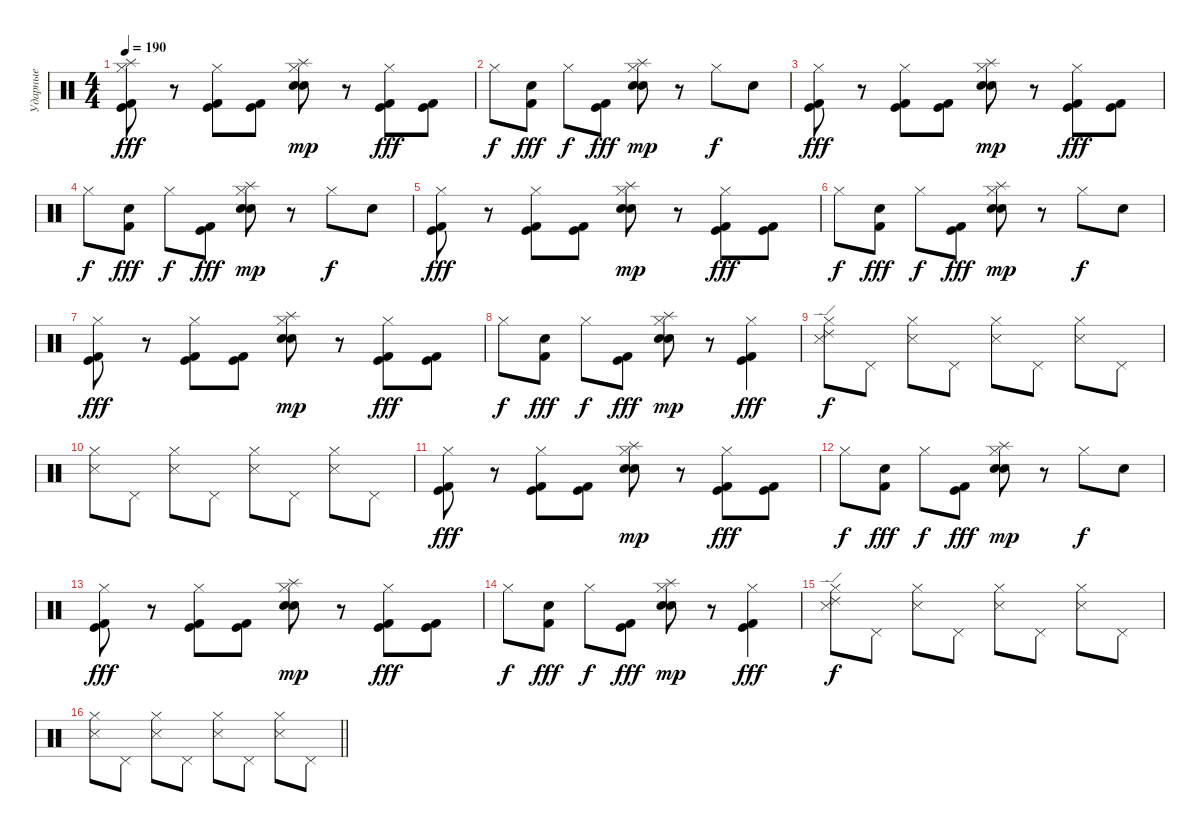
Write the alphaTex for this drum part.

\track ("Ударные" "Ударные") {instrument percussion}
\staff {score}
\articulation defaults
\ts (4 4)
\tempo 190
\clef neutral
\ks c
("Hi-Hat (closed)" "Splash (hit)" "Kick (hit)" "Kick (hit) 2").8{dy fff} r.8 ("Hi-Hat (closed)" "Kick (hit)" "Kick (hit) 2").8 ("Kick (hit)" "Kick (hit) 2").8 ("Hi-Hat (closed)" "Splash (hit)" "Electric Snare (hit)" "Snare (hit) 2").8{dy mp} r.8 ("Hi-Hat (closed)" "Kick (hit)" "Kick (hit) 2").8{dy fff} ("Kick (hit)" "Kick (hit) 2").8 |
"Hi-Hat (closed)".8{dy f} ("Electric Snare (hit)" "Kick (hit) 2").8{dy fff} "Hi-Hat (closed)".8{dy f} ("Kick (hit)" "Kick (hit) 2").8{dy fff} ("Hi-Hat (closed)" "Splash (hit)" "Electric Snare (hit)" "Snare (hit) 2").8{dy mp} r.8 "Hi-Hat (closed)".8{dy f} "Electric Snare (hit)".8 |
("Hi-Hat (closed)" "Kick (hit)" "Kick (hit) 2").8{dy fff} r.8 ("Hi-Hat (closed)" "Kick (hit)" "Kick (hit) 2").8 ("Kick (hit)" "Kick (hit) 2").8 ("Hi-Hat (closed)" "Splash (hit)" "Electric Snare (hit)" "Snare (hit) 2").8{dy mp} r.8 ("Hi-Hat (closed)" "Kick (hit)" "Kick (hit) 2").8{dy fff} ("Kick (hit)" "Kick (hit) 2").8 |
"Hi-Hat (closed)".8{dy f} ("Electric Snare (hit)" "Kick (hit) 2").8{dy fff} "Hi-Hat (closed)".8{dy f} ("Kick (hit)" "Kick (hit) 2").8{dy fff} ("Hi-Hat (closed)" "Splash (hit)" "Electric Snare (hit)" "Snare (hit) 2").8{dy mp} r.8 "Hi-Hat (closed)".8{dy f} "Electric Snare (hit)".8 |
("Hi-Hat (closed)" "Kick (hit)" "Kick (hit) 2").8{dy fff} r.8 ("Hi-Hat (closed)" "Kick (hit)" "Kick (hit) 2").8 ("Kick (hit)" "Kick (hit) 2").8 ("Hi-Hat (closed)" "Splash (hit)" "Electric Snare (hit)" "Snare (hit) 2").8{dy mp} r.8 ("Hi-Hat (closed)" "Kick (hit)" "Kick (hit) 2").8{dy fff} ("Kick (hit)" "Kick (hit) 2").8 |
"Hi-Hat (closed)".8{dy f} ("Electric Snare (hit)" "Kick (hit) 2").8{dy fff} "Hi-Hat (closed)".8{dy f} ("Kick (hit)" "Kick (hit) 2").8{dy fff} ("Hi-Hat (closed)" "Splash (hit)" "Electric Snare (hit)" "Snare (hit) 2").8{dy mp} r.8 "Hi-Hat (closed)".8{dy f} "Electric Snare (hit)".8 |
("Hi-Hat (closed)" "Kick (hit)" "Kick (hit) 2").8{dy fff} r.8 ("Hi-Hat (closed)" "Kick (hit)" "Kick (hit) 2").8 ("Kick (hit)" "Kick (hit) 2").8 ("Hi-Hat (closed)" "Splash (hit)" "Electric Snare (hit)" "Snare (hit) 2").8{dy mp} r.8 ("Hi-Hat (closed)" "Kick (hit)" "Kick (hit) 2").8{dy fff} ("Kick (hit)" "Kick (hit) 2").8 |
"Hi-Hat (closed)".8{dy f} ("Electric Snare (hit)" "Kick (hit) 2").8{dy fff} "Hi-Hat (closed)".8{dy f} ("Kick (hit)" "Kick (hit) 2").8{dy fff} ("Hi-Hat (closed)" "Splash (hit)" "Electric Snare (hit)" "Snare (hit) 2").8{dy mp} r.8 ("Hi-Hat (closed)" "Kick (hit)" "Kick (hit) 2").4{dy fff} |
("Hi-Hat (closed)" "Snare (side stick) 3" "Ride (edge) 2").8{dy f} "Pedal Hi-Hat (hit)".8 ("Hi-Hat (closed)" "Snare (side stick) 3").8 "Pedal Hi-Hat (hit)".8 ("Hi-Hat (closed)" "Snare (side stick) 3").8 "Pedal Hi-Hat (hit)".8 ("Hi-Hat (closed)" "Snare (side stick) 3").8 "Pedal Hi-Hat (hit)".8 |
("Hi-Hat (closed)" "Snare (side stick) 3").8 "Pedal Hi-Hat (hit)".8 ("Hi-Hat (closed)" "Snare (side stick) 3").8 "Pedal Hi-Hat (hit)".8 ("Hi-Hat (closed)" "Snare (side stick) 3").8 "Pedal Hi-Hat (hit)".8 ("Hi-Hat (closed)" "Snare (side stick) 3").8 "Pedal Hi-Hat (hit)".8 |
("Hi-Hat (closed)" "Kick (hit)" "Kick (hit) 2").8{dy fff} r.8 ("Hi-Hat (closed)" "Kick (hit)" "Kick (hit) 2").8 ("Kick (hit)" "Kick (hit) 2").8 ("Hi-Hat (closed)" "Splash (hit)" "Electric Snare (hit)" "Snare (hit) 2").8{dy mp} r.8 ("Hi-Hat (closed)" "Kick (hit)" "Kick (hit) 2").8{dy fff} ("Kick (hit)" "Kick (hit) 2").8 |
"Hi-Hat (closed)".8{dy f} ("Electric Snare (hit)" "Kick (hit) 2").8{dy fff} "Hi-Hat (closed)".8{dy f} ("Kick (hit)" "Kick (hit) 2").8{dy fff} ("Hi-Hat (closed)" "Splash (hit)" "Electric Snare (hit)" "Snare (hit) 2").8{dy mp} r.8 "Hi-Hat (closed)".8{dy f} "Electric Snare (hit)".8 |
("Hi-Hat (closed)" "Kick (hit)" "Kick (hit) 2").8{dy fff} r.8 ("Hi-Hat (closed)" "Kick (hit)" "Kick (hit) 2").8 ("Kick (hit)" "Kick (hit) 2").8 ("Hi-Hat (closed)" "Splash (hit)" "Electric Snare (hit)" "Snare (hit) 2").8{dy mp} r.8 ("Hi-Hat (closed)" "Kick (hit)" "Kick (hit) 2").8{dy fff} ("Kick (hit)" "Kick (hit) 2").8 |
"Hi-Hat (closed)".8{dy f} ("Electric Snare (hit)" "Kick (hit) 2").8{dy fff} "Hi-Hat (closed)".8{dy f} ("Kick (hit)" "Kick (hit) 2").8{dy fff} ("Hi-Hat (closed)" "Splash (hit)" "Electric Snare (hit)" "Snare (hit) 2").8{dy mp} r.8 ("Hi-Hat (closed)" "Kick (hit)" "Kick (hit) 2").4{dy fff} |
("Hi-Hat (closed)" "Snare (side stick) 3" "Ride (edge) 2").8{dy f} "Pedal Hi-Hat (hit)".8 ("Hi-Hat (closed)" "Snare (side stick) 3").8 "Pedal Hi-Hat (hit)".8 ("Hi-Hat (closed)" "Snare (side stick) 3").8 "Pedal Hi-Hat (hit)".8 ("Hi-Hat (closed)" "Snare (side stick) 3").8 "Pedal Hi-Hat (hit)".8 |
\barLineRight lightlight
("Hi-Hat (closed)" "Snare (side stick) 3").8 "Pedal Hi-Hat (hit)".8 ("Hi-Hat (closed)" "Snare (side stick) 3").8 "Pedal Hi-Hat (hit)".8 ("Hi-Hat (closed)" "Snare (side stick) 3").8 "Pedal Hi-Hat (hit)".8 ("Hi-Hat (closed)" "Snare (side stick) 3").8 "Pedal Hi-Hat (hit)".8
